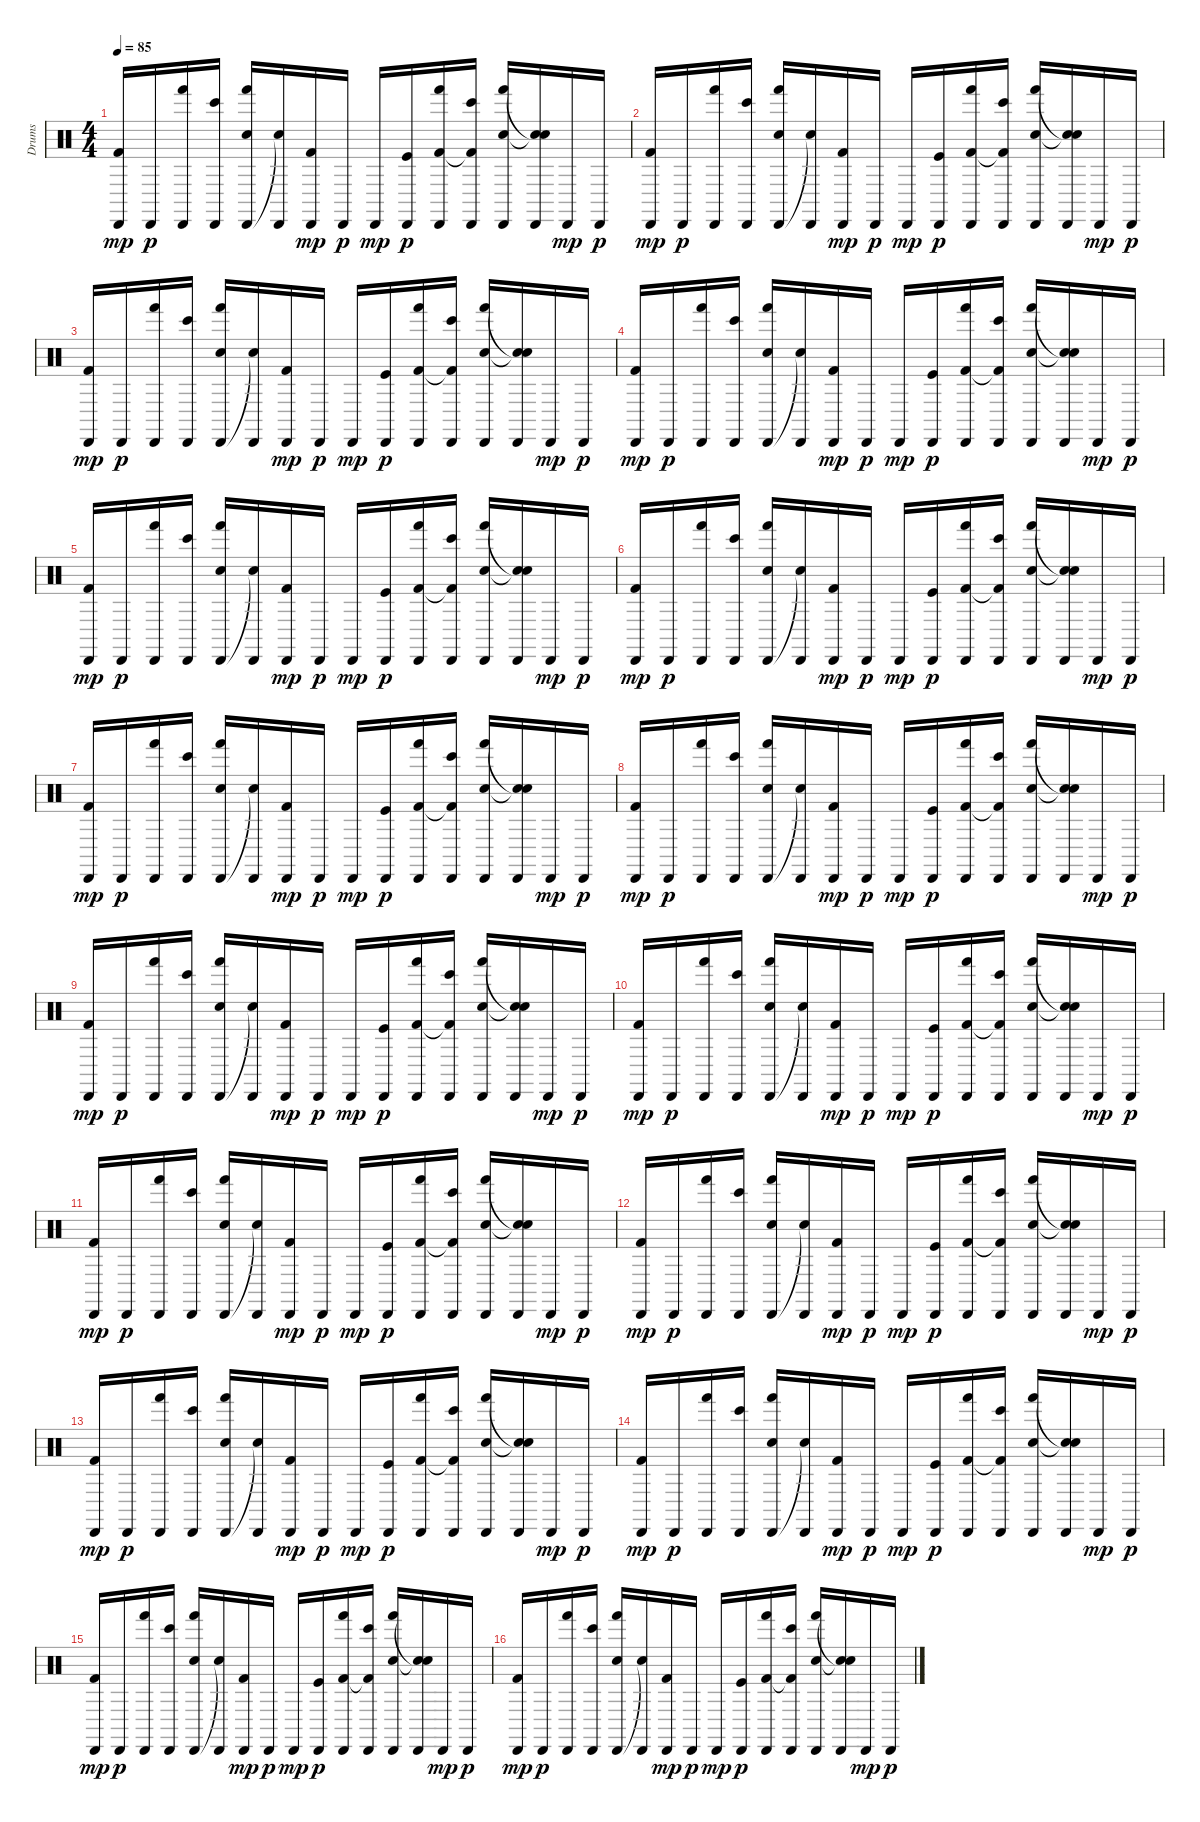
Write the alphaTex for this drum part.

\track ("Drums" "Drums") {instrument percussion}
\staff {score}
\articulation defaults
\ts (4 4)
\tempo 85
\clef neutral
\ks c
("Kick (hit) 2" "Cabasa (hit)").16{dy mp} "Cabasa (hit)".16{dy p} ("Cabasa (hit)" "Hand (hit)").16 ("Cabasa (hit)" "Bongo High (hit)").16 ("Snare (hit) 2" "Cabasa (hit)" "Hand (hit)").16 ("Cabasa (hit)" "Snare (hit)"{t}).16 ("Kick (hit) 2" "Cabasa (hit)").16{dy mp} "Cabasa (hit)".16{dy p} "Cabasa (hit)".16{dy mp} ("Cabasa (hit)" "Kick (hit)").16{dy p} ("Kick (hit) 2" "Cabasa (hit)" "Hand (hit)").16 ("Kick (hit) 2"{t} "Cabasa (hit)" "Bongo High (hit)").16 ("Snare (hit) 2" "Cabasa (hit)" "Hand (hit)").16 ("Snare (hit) 2"{t} "Cabasa (hit)" "Snare (hit)"{t}).16 "Cabasa (hit)".16{dy mp} "Cabasa (hit)".16{dy p} |
("Kick (hit) 2" "Cabasa (hit)").16{dy mp} "Cabasa (hit)".16{dy p} ("Cabasa (hit)" "Hand (hit)").16 ("Cabasa (hit)" "Bongo High (hit)").16 ("Snare (hit) 2" "Cabasa (hit)" "Hand (hit)").16 ("Cabasa (hit)" "Snare (hit)"{t}).16 ("Kick (hit) 2" "Cabasa (hit)").16{dy mp} "Cabasa (hit)".16{dy p} "Cabasa (hit)".16{dy mp} ("Cabasa (hit)" "Kick (hit)").16{dy p} ("Kick (hit) 2" "Cabasa (hit)" "Hand (hit)").16 ("Kick (hit) 2"{t} "Cabasa (hit)" "Bongo High (hit)").16 ("Snare (hit) 2" "Cabasa (hit)" "Hand (hit)").16 ("Snare (hit) 2"{t} "Cabasa (hit)" "Snare (hit)"{t}).16 "Cabasa (hit)".16{dy mp} "Cabasa (hit)".16{dy p} |
("Kick (hit) 2" "Cabasa (hit)").16{dy mp} "Cabasa (hit)".16{dy p} ("Cabasa (hit)" "Hand (hit)").16 ("Cabasa (hit)" "Bongo High (hit)").16 ("Snare (hit) 2" "Cabasa (hit)" "Hand (hit)").16 ("Cabasa (hit)" "Snare (hit)"{t}).16 ("Kick (hit) 2" "Cabasa (hit)").16{dy mp} "Cabasa (hit)".16{dy p} "Cabasa (hit)".16{dy mp} ("Cabasa (hit)" "Kick (hit)").16{dy p} ("Kick (hit) 2" "Cabasa (hit)" "Hand (hit)").16 ("Kick (hit) 2"{t} "Cabasa (hit)" "Bongo High (hit)").16 ("Snare (hit) 2" "Cabasa (hit)" "Hand (hit)").16 ("Snare (hit) 2"{t} "Cabasa (hit)" "Snare (hit)"{t}).16 "Cabasa (hit)".16{dy mp} "Cabasa (hit)".16{dy p} |
("Kick (hit) 2" "Cabasa (hit)").16{dy mp} "Cabasa (hit)".16{dy p} ("Cabasa (hit)" "Hand (hit)").16 ("Cabasa (hit)" "Bongo High (hit)").16 ("Snare (hit) 2" "Cabasa (hit)" "Hand (hit)").16 ("Cabasa (hit)" "Snare (hit)"{t}).16 ("Kick (hit) 2" "Cabasa (hit)").16{dy mp} "Cabasa (hit)".16{dy p} "Cabasa (hit)".16{dy mp} ("Cabasa (hit)" "Kick (hit)").16{dy p} ("Kick (hit) 2" "Cabasa (hit)" "Hand (hit)").16 ("Kick (hit) 2"{t} "Cabasa (hit)" "Bongo High (hit)").16 ("Snare (hit) 2" "Cabasa (hit)" "Hand (hit)").16 ("Snare (hit) 2"{t} "Cabasa (hit)" "Snare (hit)"{t}).16 "Cabasa (hit)".16{dy mp} "Cabasa (hit)".16{dy p} |
("Kick (hit) 2" "Cabasa (hit)").16{dy mp} "Cabasa (hit)".16{dy p} ("Cabasa (hit)" "Hand (hit)").16 ("Cabasa (hit)" "Bongo High (hit)").16 ("Snare (hit) 2" "Cabasa (hit)" "Hand (hit)").16 ("Cabasa (hit)" "Snare (hit)"{t}).16 ("Kick (hit) 2" "Cabasa (hit)").16{dy mp} "Cabasa (hit)".16{dy p} "Cabasa (hit)".16{dy mp} ("Cabasa (hit)" "Kick (hit)").16{dy p} ("Kick (hit) 2" "Cabasa (hit)" "Hand (hit)").16 ("Kick (hit) 2"{t} "Cabasa (hit)" "Bongo High (hit)").16 ("Snare (hit) 2" "Cabasa (hit)" "Hand (hit)").16 ("Snare (hit) 2"{t} "Cabasa (hit)" "Snare (hit)"{t}).16 "Cabasa (hit)".16{dy mp} "Cabasa (hit)".16{dy p} |
("Kick (hit) 2" "Cabasa (hit)").16{dy mp} "Cabasa (hit)".16{dy p} ("Cabasa (hit)" "Hand (hit)").16 ("Cabasa (hit)" "Bongo High (hit)").16 ("Snare (hit) 2" "Cabasa (hit)" "Hand (hit)").16 ("Cabasa (hit)" "Snare (hit)"{t}).16 ("Kick (hit) 2" "Cabasa (hit)").16{dy mp} "Cabasa (hit)".16{dy p} "Cabasa (hit)".16{dy mp} ("Cabasa (hit)" "Kick (hit)").16{dy p} ("Kick (hit) 2" "Cabasa (hit)" "Hand (hit)").16 ("Kick (hit) 2"{t} "Cabasa (hit)" "Bongo High (hit)").16 ("Snare (hit) 2" "Cabasa (hit)" "Hand (hit)").16 ("Snare (hit) 2"{t} "Cabasa (hit)" "Snare (hit)"{t}).16 "Cabasa (hit)".16{dy mp} "Cabasa (hit)".16{dy p} |
("Kick (hit) 2" "Cabasa (hit)").16{dy mp} "Cabasa (hit)".16{dy p} ("Cabasa (hit)" "Hand (hit)").16 ("Cabasa (hit)" "Bongo High (hit)").16 ("Snare (hit) 2" "Cabasa (hit)" "Hand (hit)").16 ("Cabasa (hit)" "Snare (hit)"{t}).16 ("Kick (hit) 2" "Cabasa (hit)").16{dy mp} "Cabasa (hit)".16{dy p} "Cabasa (hit)".16{dy mp} ("Cabasa (hit)" "Kick (hit)").16{dy p} ("Kick (hit) 2" "Cabasa (hit)" "Hand (hit)").16 ("Kick (hit) 2"{t} "Cabasa (hit)" "Bongo High (hit)").16 ("Snare (hit) 2" "Cabasa (hit)" "Hand (hit)").16 ("Snare (hit) 2"{t} "Cabasa (hit)" "Snare (hit)"{t}).16 "Cabasa (hit)".16{dy mp} "Cabasa (hit)".16{dy p} |
("Kick (hit) 2" "Cabasa (hit)").16{dy mp} "Cabasa (hit)".16{dy p} ("Cabasa (hit)" "Hand (hit)").16 ("Cabasa (hit)" "Bongo High (hit)").16 ("Snare (hit) 2" "Cabasa (hit)" "Hand (hit)").16 ("Cabasa (hit)" "Snare (hit)"{t}).16 ("Kick (hit) 2" "Cabasa (hit)").16{dy mp} "Cabasa (hit)".16{dy p} "Cabasa (hit)".16{dy mp} ("Cabasa (hit)" "Kick (hit)").16{dy p} ("Kick (hit) 2" "Cabasa (hit)" "Hand (hit)").16 ("Kick (hit) 2"{t} "Cabasa (hit)" "Bongo High (hit)").16 ("Snare (hit) 2" "Cabasa (hit)" "Hand (hit)").16 ("Snare (hit) 2"{t} "Cabasa (hit)" "Snare (hit)"{t}).16 "Cabasa (hit)".16{dy mp} "Cabasa (hit)".16{dy p} |
("Kick (hit) 2" "Cabasa (hit)").16{dy mp} "Cabasa (hit)".16{dy p} ("Cabasa (hit)" "Hand (hit)").16 ("Cabasa (hit)" "Bongo High (hit)").16 ("Snare (hit) 2" "Cabasa (hit)" "Hand (hit)").16 ("Cabasa (hit)" "Snare (hit)"{t}).16 ("Kick (hit) 2" "Cabasa (hit)").16{dy mp} "Cabasa (hit)".16{dy p} "Cabasa (hit)".16{dy mp} ("Cabasa (hit)" "Kick (hit)").16{dy p} ("Kick (hit) 2" "Cabasa (hit)" "Hand (hit)").16 ("Kick (hit) 2"{t} "Cabasa (hit)" "Bongo High (hit)").16 ("Snare (hit) 2" "Cabasa (hit)" "Hand (hit)").16 ("Snare (hit) 2"{t} "Cabasa (hit)" "Snare (hit)"{t}).16 "Cabasa (hit)".16{dy mp} "Cabasa (hit)".16{dy p} |
("Kick (hit) 2" "Cabasa (hit)").16{dy mp} "Cabasa (hit)".16{dy p} ("Cabasa (hit)" "Hand (hit)").16 ("Cabasa (hit)" "Bongo High (hit)").16 ("Snare (hit) 2" "Cabasa (hit)" "Hand (hit)").16 ("Cabasa (hit)" "Snare (hit)"{t}).16 ("Kick (hit) 2" "Cabasa (hit)").16{dy mp} "Cabasa (hit)".16{dy p} "Cabasa (hit)".16{dy mp} ("Cabasa (hit)" "Kick (hit)").16{dy p} ("Kick (hit) 2" "Cabasa (hit)" "Hand (hit)").16 ("Kick (hit) 2"{t} "Cabasa (hit)" "Bongo High (hit)").16 ("Snare (hit) 2" "Cabasa (hit)" "Hand (hit)").16 ("Snare (hit) 2"{t} "Cabasa (hit)" "Snare (hit)"{t}).16 "Cabasa (hit)".16{dy mp} "Cabasa (hit)".16{dy p} |
("Kick (hit) 2" "Cabasa (hit)").16{dy mp} "Cabasa (hit)".16{dy p} ("Cabasa (hit)" "Hand (hit)").16 ("Cabasa (hit)" "Bongo High (hit)").16 ("Snare (hit) 2" "Cabasa (hit)" "Hand (hit)").16 ("Cabasa (hit)" "Snare (hit)"{t}).16 ("Kick (hit) 2" "Cabasa (hit)").16{dy mp} "Cabasa (hit)".16{dy p} "Cabasa (hit)".16{dy mp} ("Cabasa (hit)" "Kick (hit)").16{dy p} ("Kick (hit) 2" "Cabasa (hit)" "Hand (hit)").16 ("Kick (hit) 2"{t} "Cabasa (hit)" "Bongo High (hit)").16 ("Snare (hit) 2" "Cabasa (hit)" "Hand (hit)").16 ("Snare (hit) 2"{t} "Cabasa (hit)" "Snare (hit)"{t}).16 "Cabasa (hit)".16{dy mp} "Cabasa (hit)".16{dy p} |
("Kick (hit) 2" "Cabasa (hit)").16{dy mp} "Cabasa (hit)".16{dy p} ("Cabasa (hit)" "Hand (hit)").16 ("Cabasa (hit)" "Bongo High (hit)").16 ("Snare (hit) 2" "Cabasa (hit)" "Hand (hit)").16 ("Cabasa (hit)" "Snare (hit)"{t}).16 ("Kick (hit) 2" "Cabasa (hit)").16{dy mp} "Cabasa (hit)".16{dy p} "Cabasa (hit)".16{dy mp} ("Cabasa (hit)" "Kick (hit)").16{dy p} ("Kick (hit) 2" "Cabasa (hit)" "Hand (hit)").16 ("Kick (hit) 2"{t} "Cabasa (hit)" "Bongo High (hit)").16 ("Snare (hit) 2" "Cabasa (hit)" "Hand (hit)").16 ("Snare (hit) 2"{t} "Cabasa (hit)" "Snare (hit)"{t}).16 "Cabasa (hit)".16{dy mp} "Cabasa (hit)".16{dy p} |
("Kick (hit) 2" "Cabasa (hit)").16{dy mp} "Cabasa (hit)".16{dy p} ("Cabasa (hit)" "Hand (hit)").16 ("Cabasa (hit)" "Bongo High (hit)").16 ("Snare (hit) 2" "Cabasa (hit)" "Hand (hit)").16 ("Cabasa (hit)" "Snare (hit)"{t}).16 ("Kick (hit) 2" "Cabasa (hit)").16{dy mp} "Cabasa (hit)".16{dy p} "Cabasa (hit)".16{dy mp} ("Cabasa (hit)" "Kick (hit)").16{dy p} ("Kick (hit) 2" "Cabasa (hit)" "Hand (hit)").16 ("Kick (hit) 2"{t} "Cabasa (hit)" "Bongo High (hit)").16 ("Snare (hit) 2" "Cabasa (hit)" "Hand (hit)").16 ("Snare (hit) 2"{t} "Cabasa (hit)" "Snare (hit)"{t}).16 "Cabasa (hit)".16{dy mp} "Cabasa (hit)".16{dy p} |
("Kick (hit) 2" "Cabasa (hit)").16{dy mp} "Cabasa (hit)".16{dy p} ("Cabasa (hit)" "Hand (hit)").16 ("Cabasa (hit)" "Bongo High (hit)").16 ("Snare (hit) 2" "Cabasa (hit)" "Hand (hit)").16 ("Cabasa (hit)" "Snare (hit)"{t}).16 ("Kick (hit) 2" "Cabasa (hit)").16{dy mp} "Cabasa (hit)".16{dy p} "Cabasa (hit)".16{dy mp} ("Cabasa (hit)" "Kick (hit)").16{dy p} ("Kick (hit) 2" "Cabasa (hit)" "Hand (hit)").16 ("Kick (hit) 2"{t} "Cabasa (hit)" "Bongo High (hit)").16 ("Snare (hit) 2" "Cabasa (hit)" "Hand (hit)").16 ("Snare (hit) 2"{t} "Cabasa (hit)" "Snare (hit)"{t}).16 "Cabasa (hit)".16{dy mp} "Cabasa (hit)".16{dy p} |
("Kick (hit) 2" "Cabasa (hit)").16{dy mp} "Cabasa (hit)".16{dy p} ("Cabasa (hit)" "Hand (hit)").16 ("Cabasa (hit)" "Bongo High (hit)").16 ("Snare (hit) 2" "Cabasa (hit)" "Hand (hit)").16 ("Cabasa (hit)" "Snare (hit)"{t}).16 ("Kick (hit) 2" "Cabasa (hit)").16{dy mp} "Cabasa (hit)".16{dy p} "Cabasa (hit)".16{dy mp} ("Cabasa (hit)" "Kick (hit)").16{dy p} ("Kick (hit) 2" "Cabasa (hit)" "Hand (hit)").16 ("Kick (hit) 2"{t} "Cabasa (hit)" "Bongo High (hit)").16 ("Snare (hit) 2" "Cabasa (hit)" "Hand (hit)").16 ("Snare (hit) 2"{t} "Cabasa (hit)" "Snare (hit)"{t}).16 "Cabasa (hit)".16{dy mp} "Cabasa (hit)".16{dy p} |
("Kick (hit) 2" "Cabasa (hit)").16{dy mp} "Cabasa (hit)".16{dy p} ("Cabasa (hit)" "Hand (hit)").16 ("Cabasa (hit)" "Bongo High (hit)").16 ("Snare (hit) 2" "Cabasa (hit)" "Hand (hit)").16 ("Cabasa (hit)" "Snare (hit)"{t}).16 ("Kick (hit) 2" "Cabasa (hit)").16{dy mp} "Cabasa (hit)".16{dy p} "Cabasa (hit)".16{dy mp} ("Cabasa (hit)" "Kick (hit)").16{dy p} ("Kick (hit) 2" "Cabasa (hit)" "Hand (hit)").16 ("Kick (hit) 2"{t} "Cabasa (hit)" "Bongo High (hit)").16 ("Snare (hit) 2" "Cabasa (hit)" "Hand (hit)").16 ("Snare (hit) 2"{t} "Cabasa (hit)" "Snare (hit)"{t}).16 "Cabasa (hit)".16{dy mp} "Cabasa (hit)".16{dy p}
